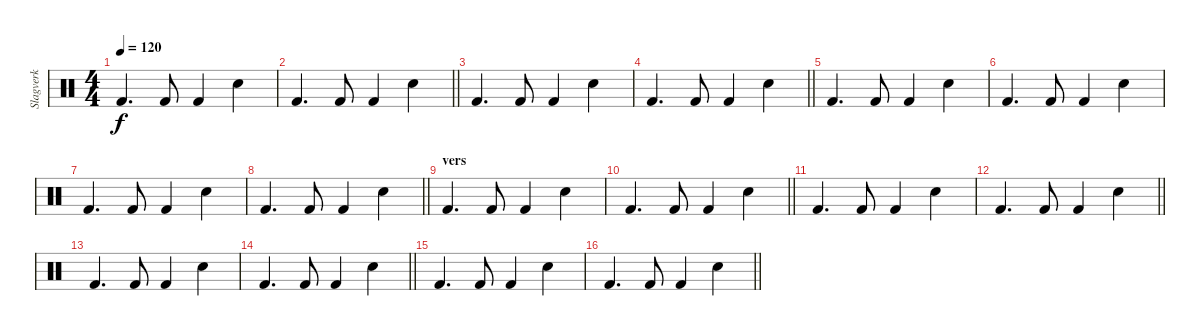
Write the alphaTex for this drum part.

\track ("Slagverk" "Slagverk") {instrument percussion}
\staff {score}
\articulation defaults
\ts (4 4)
\tempo 120
\clef neutral
\ks c "Kick (hit) 2".4{d dy f} "Kick (hit) 2".8 "Kick (hit) 2".4 "Snare (hit) 2".4
|
\barLineRight lightlight "Kick (hit) 2".4{d} "Kick (hit) 2".8 "Kick (hit) 2".4 "Snare (hit) 2".4
|
"Kick (hit) 2".4{d} "Kick (hit) 2".8 "Kick (hit) 2".4 "Snare (hit) 2".4 |
\barLineRight lightlight "Kick (hit) 2".4{d} "Kick (hit) 2".8 "Kick (hit) 2".4 "Snare (hit) 2".4
|
"Kick (hit) 2".4{d} "Kick (hit) 2".8 "Kick (hit) 2".4 "Snare (hit) 2".4 |
"Kick (hit) 2".4{d} "Kick (hit) 2".8 "Kick (hit) 2".4 "Snare (hit) 2".4 |
"Kick (hit) 2".4{d} "Kick (hit) 2".8 "Kick (hit) 2".4 "Snare (hit) 2".4 |
\barLineRight lightlight "Kick (hit) 2".4{d} "Kick (hit) 2".8 "Kick (hit) 2".4 "Snare (hit) 2".4
|
\section ("" "vers")
"Kick (hit) 2".4{d} "Kick (hit) 2".8 "Kick (hit) 2".4 "Snare (hit) 2".4 |
\barLineRight lightlight "Kick (hit) 2".4{d} "Kick (hit) 2".8 "Kick (hit) 2".4 "Snare (hit) 2".4
|
"Kick (hit) 2".4{d} "Kick (hit) 2".8 "Kick (hit) 2".4 "Snare (hit) 2".4 |
\barLineRight lightlight "Kick (hit) 2".4{d} "Kick (hit) 2".8 "Kick (hit) 2".4 "Snare (hit) 2".4
|
"Kick (hit) 2".4{d} "Kick (hit) 2".8 "Kick (hit) 2".4 "Snare (hit) 2".4 |
\barLineRight lightlight "Kick (hit) 2".4{d} "Kick (hit) 2".8 "Kick (hit) 2".4 "Snare (hit) 2".4
|
"Kick (hit) 2".4{d} "Kick (hit) 2".8 "Kick (hit) 2".4 "Snare (hit) 2".4 |
\barLineRight lightlight "Kick (hit) 2".4{d} "Kick (hit) 2".8 "Kick (hit) 2".4 "Snare (hit) 2".4
